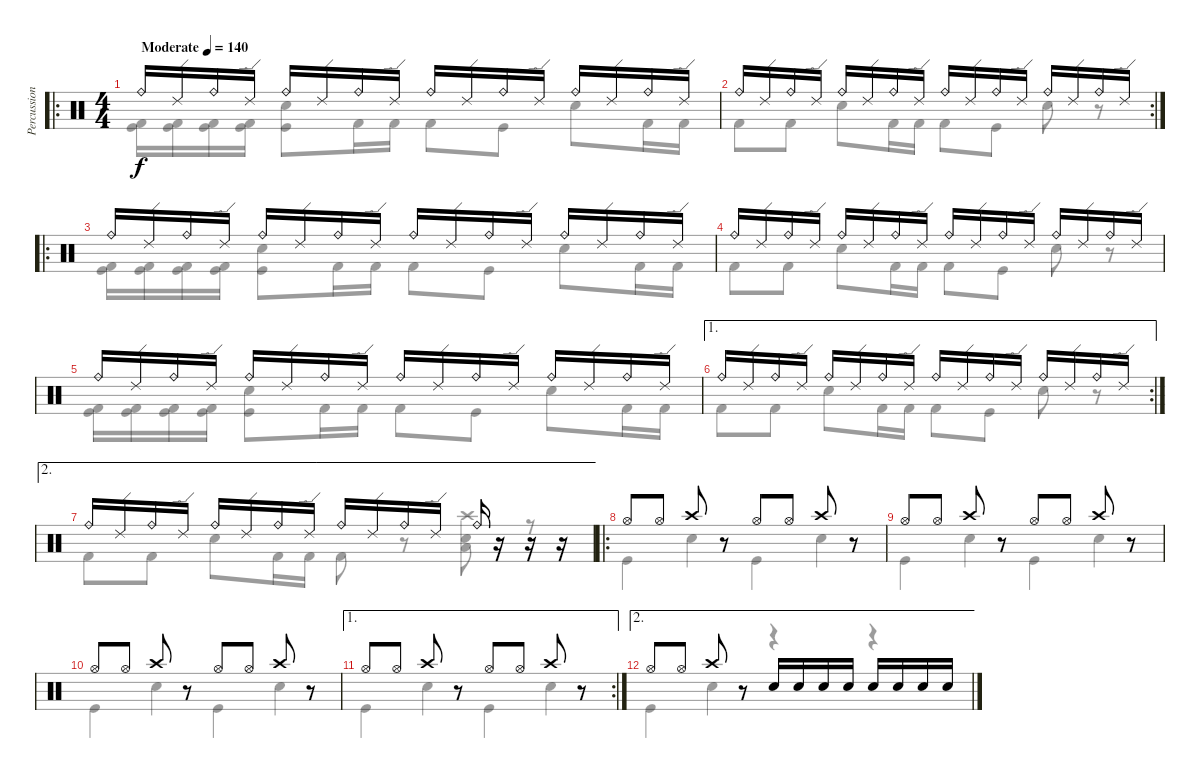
\track ("Percussion" "Percussion") {instrument percussion}
\staff {score}
\articulation defaults
\voice
\ro
\ts (4 4)
\tempo (140 "Moderate")
\clef neutral
\ks c "Ride (bell)".16{dy f} "Ride (edge) 2".16 "Ride (bell)".16 "Ride (edge) 2".16 "Ride (bell)".16 "Ride (edge) 2".16 "Ride (bell)".16 "Ride (edge) 2".16 "Ride (bell)".16 "Ride (edge) 2".16 "Ride (bell)".16 "Ride (edge) 2".16 "Ride (bell)".16 "Ride (edge) 2".16 "Ride (bell)".16 "Ride (edge) 2".16
|
\rc 2 "Ride (bell)".16 "Ride (edge) 2".16 "Ride (bell)".16 "Ride (edge) 2".16 "Ride (bell)".16 "Ride (edge) 2".16 "Ride (bell)".16 "Ride (edge) 2".16 "Ride (bell)".16 "Ride (edge) 2".16 "Ride (bell)".16 "Ride (edge) 2".16 "Ride (bell)".16 "Ride (edge) 2".16 "Ride (bell)".16 "Ride (edge) 2".16
|
\ro "Ride (bell)".16 "Ride (edge) 2".16 "Ride (bell)".16 "Ride (edge) 2".16 "Ride (bell)".16 "Ride (edge) 2".16 "Ride (bell)".16 "Ride (edge) 2".16 "Ride (bell)".16 "Ride (edge) 2".16 "Ride (bell)".16 "Ride (edge) 2".16 "Ride (bell)".16 "Ride (edge) 2".16 "Ride (bell)".16 "Ride (edge) 2".16
|
"Ride (bell)".16 "Ride (edge) 2".16 "Ride (bell)".16 "Ride (edge) 2".16 "Ride (bell)".16 "Ride (edge) 2".16 "Ride (bell)".16 "Ride (edge) 2".16 "Ride (bell)".16 "Ride (edge) 2".16 "Ride (bell)".16 "Ride (edge) 2".16 "Ride (bell)".16 "Ride (edge) 2".16 "Ride (bell)".16 "Ride (edge) 2".16 |
"Ride (bell)".16 "Ride (edge) 2".16 "Ride (bell)".16 "Ride (edge) 2".16 "Ride (bell)".16 "Ride (edge) 2".16 "Ride (bell)".16 "Ride (edge) 2".16 "Ride (bell)".16 "Ride (edge) 2".16 "Ride (bell)".16 "Ride (edge) 2".16 "Ride (bell)".16 "Ride (edge) 2".16 "Ride (bell)".16 "Ride (edge) 2".16 |
\ae 1
\rc 2 "Ride (bell)".16 "Ride (edge) 2".16 "Ride (bell)".16 "Ride (edge) 2".16 "Ride (bell)".16 "Ride (edge) 2".16 "Ride (bell)".16 "Ride (edge) 2".16 "Ride (bell)".16 "Ride (edge) 2".16 "Ride (bell)".16 "Ride (edge) 2".16 "Ride (bell)".16 "Ride (edge) 2".16 "Ride (bell)".16 "Ride (edge) 2".16
|
\ae 2 "Ride (bell)".16 "Ride (edge) 2".16 "Ride (bell)".16 "Ride (edge) 2".16 "Ride (bell)".16 "Ride (edge) 2".16 "Ride (bell)".16 "Ride (edge) 2".16 "Ride (bell)".16 "Ride (edge) 2".16 "Ride (bell)".16 "Ride (edge) 2".16 "Ride (bell)".16
r.16 r.16 r.16 |
\ro "Hi-Hat (open)".8 "Hi-Hat (open)".8 "Crash high (hit)".8
r.8 "Hi-Hat (open)".8 "Hi-Hat (open)".8 "Crash high (hit)".8 r.8 |
"Hi-Hat (open)".8 "Hi-Hat (open)".8 "Crash high (hit)".8 r.8 "Hi-Hat (open)".8 "Hi-Hat (open)".8 "Crash high (hit)".8 r.8 |
"Hi-Hat (open)".8 "Hi-Hat (open)".8 "Crash high (hit)".8 r.8 "Hi-Hat (open)".8 "Hi-Hat (open)".8 "Crash high (hit)".8 r.8 |
\ae 1
\rc 2 "Hi-Hat (open)".8 "Hi-Hat (open)".8 "Crash high (hit)".8
r.8 "Hi-Hat (open)".8 "Hi-Hat (open)".8 "Crash high (hit)".8 r.8 |
\ae 2 "Hi-Hat (open)".8 "Hi-Hat (open)".8 "Crash high (hit)".8
r.8 "Snare (hit) 2".16 "Snare (hit) 2".16 "Snare (hit) 2".16 "Snare (hit) 2".16 "Snare (hit) 2".16 "Snare (hit) 2".16 "Snare (hit) 2".16 "Snare (hit) 2".16
\voice
\clef neutral
\ottava regular
\simile none
\ks c
("Kick (hit) 2" "Kick (hit)").16{dy f} ("Kick (hit) 2" "Kick (hit)").16 ("Kick (hit) 2" "Kick (hit)").16 ("Kick (hit) 2" "Kick (hit)").16 ("Kick (hit)" "Electric Snare (hit)").8 "Kick (hit) 2".16 "Kick (hit) 2".16 "Kick (hit) 2".8 "Kick (hit)".8 "Electric Snare (hit)".8 "Kick (hit) 2".16 "Kick (hit) 2".16 |
"Kick (hit) 2".8 "Kick (hit) 2".8 "Electric Snare (hit)".8 "Kick (hit) 2".16 "Kick (hit) 2".16 "Kick (hit) 2".8 "Kick (hit)".8 "Electric Snare (hit)".8 r.8 |
("Kick (hit) 2" "Kick (hit)").16 ("Kick (hit) 2" "Kick (hit)").16 ("Kick (hit) 2" "Kick (hit)").16 ("Kick (hit) 2" "Kick (hit)").16 ("Kick (hit)" "Electric Snare (hit)").8 "Kick (hit) 2".16 "Kick (hit) 2".16 "Kick (hit) 2".8 "Kick (hit)".8 "Electric Snare (hit)".8 "Kick (hit) 2".16 "Kick (hit) 2".16 |
"Kick (hit) 2".8 "Kick (hit) 2".8 "Electric Snare (hit)".8 "Kick (hit) 2".16 "Kick (hit) 2".16 "Kick (hit) 2".8 "Kick (hit)".8 "Electric Snare (hit)".8 r.8 |
("Kick (hit) 2" "Kick (hit)").16 ("Kick (hit) 2" "Kick (hit)").16 ("Kick (hit) 2" "Kick (hit)").16 ("Kick (hit) 2" "Kick (hit)").16 ("Kick (hit)" "Electric Snare (hit)").8 "Kick (hit) 2".16 "Kick (hit) 2".16 "Kick (hit) 2".8 "Kick (hit)".8 "Electric Snare (hit)".8 "Kick (hit) 2".16 "Kick (hit) 2".16 |
"Kick (hit) 2".8 "Kick (hit) 2".8 "Electric Snare (hit)".8 "Kick (hit) 2".16 "Kick (hit) 2".16 "Kick (hit) 2".8 "Kick (hit)".8 "Electric Snare (hit)".8 r.8 |
"Kick (hit) 2".8 "Kick (hit) 2".8 "Electric Snare (hit)".8 "Kick (hit) 2".16 "Kick (hit) 2".16 "Kick (hit) 2".8 r.8 ("Snare (hit) 2" "Low Tom (hit)" "Crash high (hit)").8 r.8 |
"Kick (hit)".4 "Electric Snare (hit)".4 "Kick (hit)".4 "Electric Snare (hit)".4 |
"Kick (hit)".4 "Electric Snare (hit)".4 "Kick (hit)".4 "Electric Snare (hit)".4 |
"Kick (hit)".4 "Electric Snare (hit)".4 "Kick (hit)".4 "Electric Snare (hit)".4 |
"Kick (hit)".4 "Electric Snare (hit)".4 "Kick (hit)".4 "Electric Snare (hit)".4 |
"Kick (hit)".4 "Electric Snare (hit)".4 r.4 r.4
